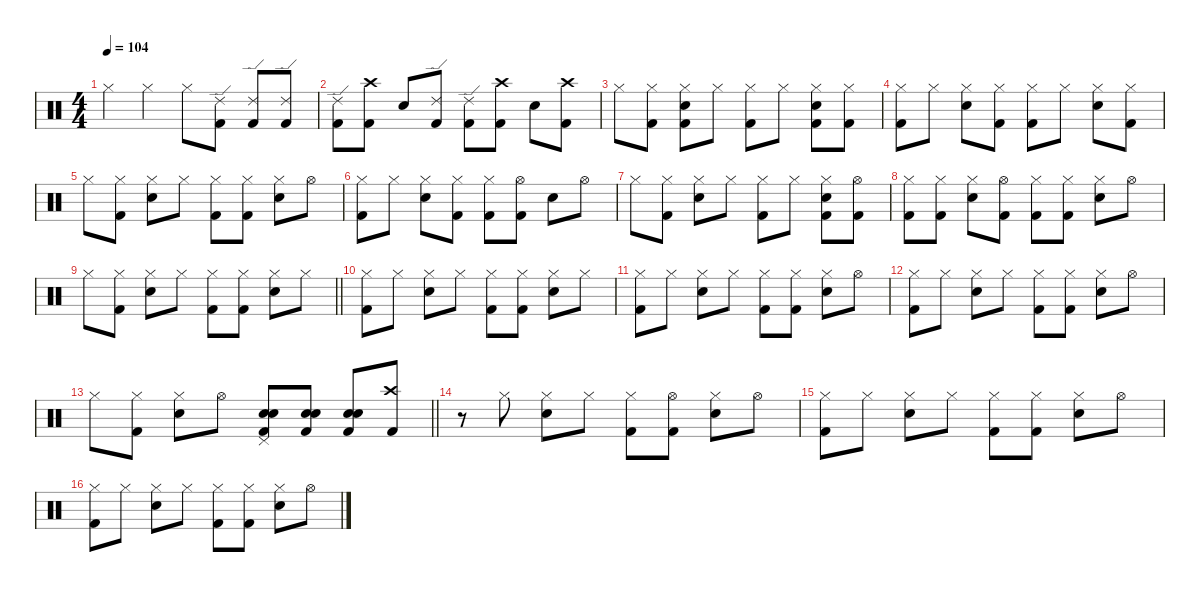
\defaultSystemsLayout 4
\hideDynamics
\bracketExtendMode nobrackets
\singleTrackTrackNamePolicy hidden
\multiTrackTrackNamePolicy hidden
\firstSystemTrackNameMode fullname
\firstSystemTrackNameOrientation horizontal
\otherSystemsTrackNameOrientation horizontal
\track ("Drums" "drm.") {instrument percussion}
\staff {score}
\articulation defaults
\ts (4 4)
\beaming (8 2 2 2 2)
\tempo 104
\clef neutral
\ks c "Hi-Hat (closed)".4{dy f beam Down} "Hi-Hat (closed)".4{beam Down} "Hi-Hat (closed)".8{beam Down}
("Ride (edge) 2" "Kick (hit) 2").8{beam Down} ("Ride (edge) 2" "Kick (hit) 2").8{beam Up} ("Ride (edge) 2" "Kick (hit) 2").8{beam Up} |
("Ride (edge) 2" "Kick (hit) 2").8{beam Down} ("Crash high (hit)" "Kick (hit) 2").8{beam Down} "Snare (hit) 2".8{beam Up} ("Ride (edge) 2" "Kick (hit) 2").8{beam Up} ("Ride (edge) 2" "Kick (hit) 2").8{beam Down} ("Crash high (hit)" "Kick (hit) 2").8{beam Down} "Snare (hit) 2".8{beam Down} ("Crash high (hit)" "Kick (hit) 2").8{beam Down} |
"Hi-Hat (closed)".8{beam Down} ("Hi-Hat (closed)" "Kick (hit) 2").8{beam Down} ("Hi-Hat (closed)" "Snare (hit) 2" "Kick (hit) 2").8{beam Down} "Hi-Hat (closed)".8{beam Down} ("Hi-Hat (closed)" "Kick (hit) 2").8{beam Down} "Hi-Hat (closed)".8{beam Down} ("Hi-Hat (closed)" "Snare (hit) 2" "Kick (hit) 2").8{beam Down} ("Hi-Hat (closed)" "Kick (hit) 2").8{beam Down} |
("Hi-Hat (closed)" "Kick (hit) 2").8{beam Down} "Hi-Hat (closed)".8{beam Down} ("Hi-Hat (closed)" "Snare (hit) 2").8{beam Down} ("Hi-Hat (closed)" "Kick (hit) 2").8{beam Down} ("Hi-Hat (closed)" "Kick (hit) 2").8{beam Down} "Hi-Hat (closed)".8{beam Down} ("Hi-Hat (closed)" "Snare (hit) 2").8{beam Down} ("Hi-Hat (closed)" "Kick (hit) 2").8{beam Down} |
"Hi-Hat (closed)".8{beam Down} ("Hi-Hat (closed)" "Kick (hit) 2").8{beam Down} ("Hi-Hat (closed)" "Snare (hit) 2").8{beam Down} "Hi-Hat (closed)".8{beam Down} ("Hi-Hat (closed)" "Kick (hit) 2").8{beam Down} ("Hi-Hat (closed)" "Kick (hit) 2").8{beam Down} ("Hi-Hat (closed)" "Snare (hit) 2").8{beam Down} "Hi-Hat (open)".8{beam Down} |
("Hi-Hat (closed)" "Kick (hit) 2").8{beam Down} "Hi-Hat (closed)".8{beam Down} ("Hi-Hat (closed)" "Snare (hit) 2").8{beam Down} ("Hi-Hat (closed)" "Kick (hit) 2").8{beam Down} ("Hi-Hat (closed)" "Kick (hit) 2").8{beam Down} ("Hi-Hat (open)" "Kick (hit) 2").8{beam Down} "Snare (hit) 2".8{beam Down} "Hi-Hat (open)".8{beam Down} |
"Hi-Hat (closed)".8{beam Down} ("Hi-Hat (closed)" "Kick (hit) 2").8{beam Down} ("Hi-Hat (closed)" "Snare (hit) 2").8{beam Down} "Hi-Hat (closed)".8{beam Down} ("Hi-Hat (closed)" "Kick (hit) 2").8{beam Down} "Hi-Hat (closed)".8{beam Down} ("Hi-Hat (closed)" "Snare (hit) 2" "Kick (hit) 2").8{beam Down} ("Hi-Hat (open)" "Kick (hit) 2").8{beam Down} |
("Hi-Hat (closed)" "Kick (hit) 2").8{beam Down} ("Hi-Hat (closed)" "Kick (hit) 2").8{beam Down} ("Hi-Hat (closed)" "Snare (hit) 2").8{beam Down} ("Hi-Hat (open)" "Kick (hit) 2").8{beam Down} ("Hi-Hat (closed)" "Kick (hit) 2").8{beam Down} ("Hi-Hat (closed)" "Kick (hit) 2").8{beam Down} ("Hi-Hat (closed)" "Snare (hit) 2").8{beam Down} "Hi-Hat (open)".8{beam Down} |
\barLineRight lightlight "Hi-Hat (closed)".8{beam Down}
("Hi-Hat (closed)" "Kick (hit) 2").8{beam Down} ("Hi-Hat (closed)" "Snare (hit) 2").8{beam Down} "Hi-Hat (closed)".8{beam Down} ("Hi-Hat (closed)" "Kick (hit) 2").8{beam Down} ("Hi-Hat (closed)" "Kick (hit) 2").8{beam Down} ("Hi-Hat (closed)" "Snare (hit) 2").8{beam Down} "Hi-Hat (closed)".8{beam Down} |
\section ("" "")
("Hi-Hat (closed)" "Kick (hit) 2").8{beam Down} "Hi-Hat (closed)".8{beam Down} ("Hi-Hat (closed)" "Snare (hit) 2").8{beam Down} "Hi-Hat (closed)".8{beam Down} ("Hi-Hat (closed)" "Kick (hit) 2").8{beam Down} ("Hi-Hat (closed)" "Kick (hit) 2").8{beam Down} ("Hi-Hat (closed)" "Snare (hit) 2").8{beam Down} "Hi-Hat (closed)".8{beam Down} |
("Hi-Hat (closed)" "Kick (hit) 2").8{beam Down} "Hi-Hat (closed)".8{beam Down} ("Hi-Hat (closed)" "Snare (hit) 2").8{beam Down} "Hi-Hat (closed)".8{beam Down} ("Hi-Hat (closed)" "Kick (hit) 2").8{beam Down} ("Hi-Hat (closed)" "Kick (hit) 2").8{beam Down} ("Hi-Hat (closed)" "Snare (hit) 2").8{beam Down} "Hi-Hat (open)".8{beam Down} |
("Hi-Hat (closed)" "Kick (hit) 2").8{beam Down} "Hi-Hat (closed)".8{beam Down} ("Hi-Hat (closed)" "Snare (hit) 2").8{beam Down} "Hi-Hat (closed)".8{beam Down} ("Hi-Hat (closed)" "Kick (hit) 2").8{beam Down} ("Hi-Hat (closed)" "Kick (hit) 2").8{beam Down} ("Hi-Hat (closed)" "Snare (hit) 2").8{beam Down} "Hi-Hat (open)".8{beam Down} |
\barLineRight lightlight "Hi-Hat (closed)".8{beam Down}
("Hi-Hat (closed)" "Kick (hit) 2").8{beam Down} ("Hi-Hat (closed)" "Snare (hit) 2").8{beam Down} "Hi-Hat (open)".8{beam Down} ("Pedal Hi-Hat (hit)" "Snare (hit) 2" "Snare (hit) 2" "Kick (hit) 2").8{beam Up} ("Snare (hit) 2" "Snare (hit) 2" "Kick (hit) 2").8{beam Up} ("Snare (hit) 2" "Snare (hit) 2" "Kick (hit) 2").8{beam Up} ("Crash high (hit)" "Kick (hit) 2").8{beam Up} |
\section ("" "")
r.8{beam Down} "Hi-Hat (closed)".8{beam Down} ("Hi-Hat (closed)" "Snare (hit) 2").8{beam Down} "Hi-Hat (closed)".8{beam Down} ("Hi-Hat (closed)" "Kick (hit) 2").8{beam Down} ("Hi-Hat (open)" "Kick (hit) 2").8{beam Down} ("Hi-Hat (closed)" "Snare (hit) 2").8{beam Down} "Hi-Hat (open)".8{beam Down} |
("Hi-Hat (closed)" "Kick (hit) 2").8{beam Down} "Hi-Hat (closed)".8{beam Down} ("Hi-Hat (closed)" "Snare (hit) 2").8{beam Down} "Hi-Hat (closed)".8{beam Down} ("Hi-Hat (closed)" "Kick (hit) 2").8{beam Down} ("Hi-Hat (closed)" "Kick (hit) 2").8{beam Down} ("Hi-Hat (closed)" "Snare (hit) 2").8{beam Down} "Hi-Hat (open)".8{beam Down} |
("Hi-Hat (closed)" "Kick (hit) 2").8{beam Down} "Hi-Hat (closed)".8{beam Down} ("Hi-Hat (closed)" "Snare (hit) 2").8{beam Down} "Hi-Hat (closed)".8{beam Down} ("Hi-Hat (closed)" "Kick (hit) 2").8{beam Down} ("Hi-Hat (closed)" "Kick (hit) 2").8{beam Down} ("Hi-Hat (closed)" "Snare (hit) 2").8{beam Down} "Hi-Hat (open)".8{beam Down}
